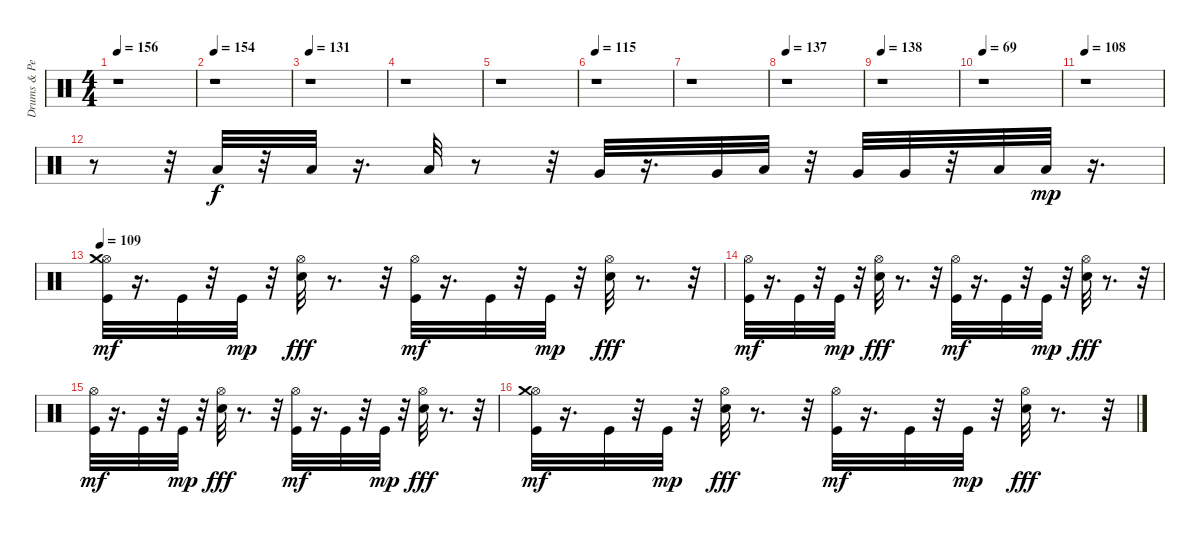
\track ("Drums & Percussion" "Drums & Pe") {instrument percussion}
\staff {score}
\articulation defaults
\ts (4 4)
\tempo 156
\clef neutral
\ks c
r.1{dy f} |
\tempo 154
r.1 |
\tempo 131
r.1 |
r.1 |
r.1 |
\tempo 115
r.1 |
r.1 |
\tempo 137
r.1 |
\tempo 138
r.1 |
\tempo 69
r.1 |
\tempo 108
r.1 |
r.8 r.32 "Low Tom (hit)".32 r.32 "Low Tom (hit)".32 r.16{d} "Low Tom (hit)".32 r.8 r.32 "Very Low Tom (hit)".32 r.16{d} "Very Low Tom (hit)".32 "Low Tom (hit)".32 r.32 "Very Low Tom (hit)".32 "Very Low Tom (hit)".32 r.32 "Low Floor Tom (hit)".32 "Low Floor Tom (hit)".32{dy mp} r.16{d} |
\tempo 109
("Hi-Hat (open)" "Crash medium (hit)" "Kick (hit)").32{dy mf} r.16{d} "Kick (hit)".32 r.32 "Kick (hit)".32{dy mp} r.32 ("Hi-Hat (open)" "Snare (hit) 2").32{dy fff} r.8{d} r.32 ("Hi-Hat (open)" "Kick (hit)").32{dy mf} r.16{d} "Kick (hit)".32 r.32 "Kick (hit)".32{dy mp} r.32 ("Hi-Hat (open)" "Snare (hit) 2").32{dy fff} r.8{d} r.32 |
("Hi-Hat (open)" "Kick (hit)").32{dy mf} r.16{d} "Kick (hit)".32 r.32 "Kick (hit)".32{dy mp} r.32 ("Hi-Hat (open)" "Snare (hit) 2").32{dy fff} r.8{d} r.32 ("Hi-Hat (open)" "Kick (hit)").32{dy mf} r.16{d} "Kick (hit)".32 r.32 "Kick (hit)".32{dy mp} r.32 ("Hi-Hat (open)" "Snare (hit) 2").32{dy fff} r.8{d} r.32 |
("Hi-Hat (open)" "Kick (hit)").32{dy mf} r.16{d} "Kick (hit)".32 r.32 "Kick (hit)".32{dy mp} r.32 ("Hi-Hat (open)" "Snare (hit) 2").32{dy fff} r.8{d} r.32 ("Hi-Hat (open)" "Kick (hit)").32{dy mf} r.16{d} "Kick (hit)".32 r.32 "Kick (hit)".32{dy mp} r.32 ("Hi-Hat (open)" "Snare (hit) 2").32{dy fff} r.8{d} r.32 |
("Hi-Hat (open)" "Kick (hit)" "Crash medium (hit)").32{dy mf} r.16{d} "Kick (hit)".32 r.32 "Kick (hit)".32{dy mp} r.32 ("Hi-Hat (open)" "Snare (hit) 2").32{dy fff} r.8{d} r.32 ("Hi-Hat (open)" "Kick (hit)").32{dy mf} r.16{d} "Kick (hit)".32 r.32 "Kick (hit)".32{dy mp} r.32 ("Hi-Hat (open)" "Snare (hit) 2").32{dy fff} r.8{d} r.32
